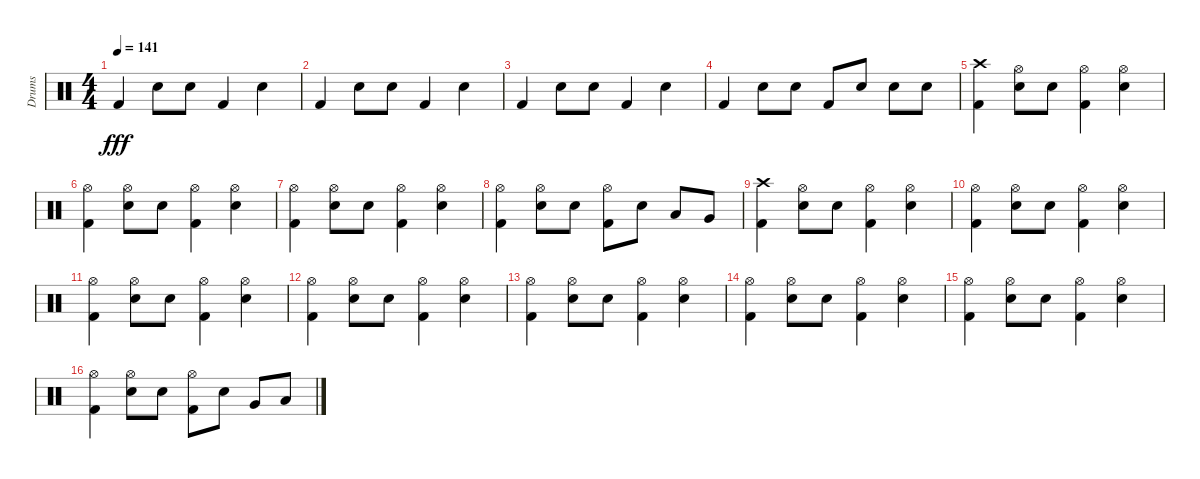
\track ("Drums" "Drums") {instrument percussion}
\staff {score}
\articulation defaults
\ts (4 4)
\tempo 141
\clef neutral
\ks c "Kick (hit) 2".4{dy fff} "Electric Snare (hit)".8 "Electric Snare (hit)".8 "Kick (hit) 2".4 "Electric Snare (hit)".4
|
"Kick (hit) 2".4 "Electric Snare (hit)".8 "Electric Snare (hit)".8 "Kick (hit) 2".4 "Electric Snare (hit)".4 |
"Kick (hit) 2".4 "Electric Snare (hit)".8 "Electric Snare (hit)".8 "Kick (hit) 2".4 "Electric Snare (hit)".4 |
"Kick (hit) 2".4 "Electric Snare (hit)".8 "Electric Snare (hit)".8 "Kick (hit) 2".8 "Electric Snare (hit)".8 "Electric Snare (hit)".8 "Electric Snare (hit)".8 |
("Crash high (hit)" "Kick (hit) 2").4 ("Hi-Hat (open)" "Electric Snare (hit)").8 "Electric Snare (hit)".8 ("Hi-Hat (open)" "Kick (hit) 2").4 ("Hi-Hat (open)" "Electric Snare (hit)").4 |
("Hi-Hat (open)" "Kick (hit) 2").4 ("Hi-Hat (open)" "Electric Snare (hit)").8 "Electric Snare (hit)".8 ("Hi-Hat (open)" "Kick (hit) 2").4 ("Hi-Hat (open)" "Electric Snare (hit)").4 |
("Hi-Hat (open)" "Kick (hit) 2").4 ("Hi-Hat (open)" "Electric Snare (hit)").8 "Electric Snare (hit)".8 ("Hi-Hat (open)" "Kick (hit) 2").4 ("Hi-Hat (open)" "Electric Snare (hit)").4 |
("Hi-Hat (open)" "Kick (hit) 2").4 ("Hi-Hat (open)" "Electric Snare (hit)").8 "Electric Snare (hit)".8 ("Hi-Hat (open)" "Kick (hit) 2").8 "Electric Snare (hit)".8 "Low Tom (hit)".8 "Very Low Tom (hit)".8 |
("Crash high (hit)" "Kick (hit) 2").4 ("Hi-Hat (open)" "Electric Snare (hit)").8 "Electric Snare (hit)".8 ("Hi-Hat (open)" "Kick (hit) 2").4 ("Hi-Hat (open)" "Electric Snare (hit)").4 |
("Hi-Hat (open)" "Kick (hit) 2").4 ("Hi-Hat (open)" "Electric Snare (hit)").8 "Electric Snare (hit)".8 ("Hi-Hat (open)" "Kick (hit) 2").4 ("Hi-Hat (open)" "Electric Snare (hit)").4 |
("Hi-Hat (open)" "Kick (hit) 2").4 ("Hi-Hat (open)" "Electric Snare (hit)").8 "Electric Snare (hit)".8 ("Hi-Hat (open)" "Kick (hit) 2").4 ("Hi-Hat (open)" "Electric Snare (hit)").4 |
("Hi-Hat (open)" "Kick (hit) 2").4 ("Hi-Hat (open)" "Electric Snare (hit)").8 "Electric Snare (hit)".8 ("Hi-Hat (open)" "Kick (hit) 2").4 ("Hi-Hat (open)" "Electric Snare (hit)").4 |
("Hi-Hat (open)" "Kick (hit) 2").4 ("Hi-Hat (open)" "Electric Snare (hit)").8 "Electric Snare (hit)".8 ("Hi-Hat (open)" "Kick (hit) 2").4 ("Hi-Hat (open)" "Electric Snare (hit)").4 |
("Hi-Hat (open)" "Kick (hit) 2").4 ("Hi-Hat (open)" "Electric Snare (hit)").8 "Electric Snare (hit)".8 ("Hi-Hat (open)" "Kick (hit) 2").4 ("Hi-Hat (open)" "Electric Snare (hit)").4 |
("Hi-Hat (open)" "Kick (hit) 2").4 ("Hi-Hat (open)" "Electric Snare (hit)").8 "Electric Snare (hit)".8 ("Hi-Hat (open)" "Kick (hit) 2").4 ("Hi-Hat (open)" "Electric Snare (hit)").4 |
("Hi-Hat (open)" "Kick (hit) 2").4 ("Hi-Hat (open)" "Electric Snare (hit)").8 "Electric Snare (hit)".8 ("Hi-Hat (open)" "Kick (hit) 2").8 "Electric Snare (hit)".8 "Very Low Tom (hit)".8 "Low Floor Tom (hit)".8
